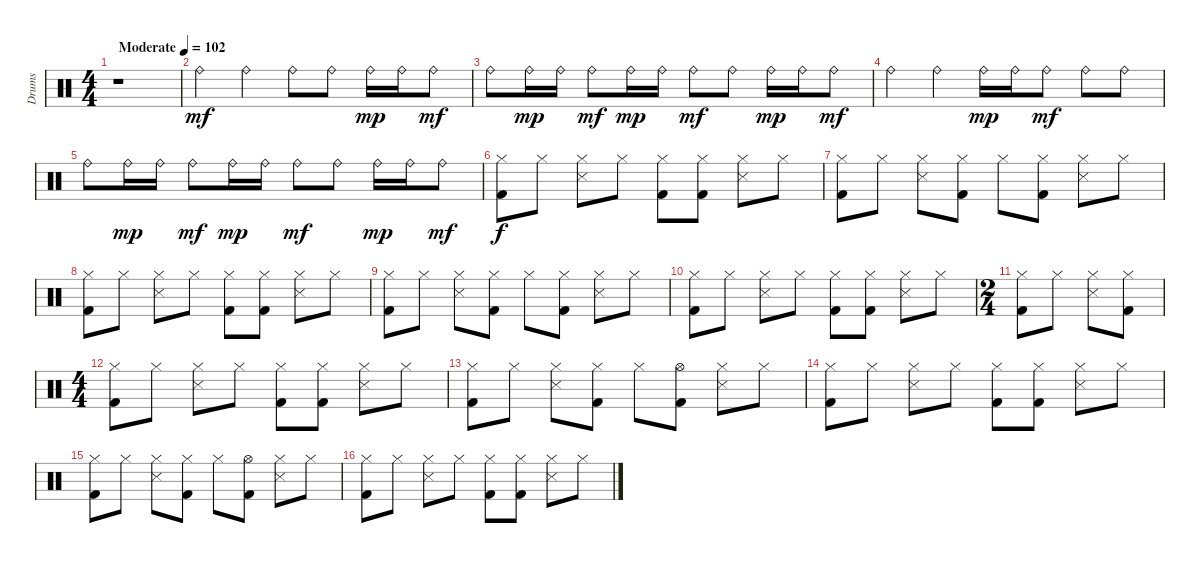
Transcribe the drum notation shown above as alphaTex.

\track ("Drums" "Drums") {instrument percussion}
\staff {score}
\articulation defaults
\ts (4 4)
\tempo (102 "Moderate")
\clef neutral
\ks c
r.1{dy mf} |
"Ride (bell)".4 "Ride (bell)".4 "Ride (bell)".8 "Ride (bell)".8 "Ride (bell)".16{dy mp} "Ride (bell)".16 "Ride (bell)".8{dy mf} |
"Ride (bell)".8 "Ride (bell)".16{dy mp} "Ride (bell)".16 "Ride (bell)".8{dy mf} "Ride (bell)".16{dy mp} "Ride (bell)".16 "Ride (bell)".8{dy mf} "Ride (bell)".8 "Ride (bell)".16{dy mp} "Ride (bell)".16 "Ride (bell)".8{dy mf} |
"Ride (bell)".4 "Ride (bell)".4 "Ride (bell)".16{dy mp} "Ride (bell)".16 "Ride (bell)".8{dy mf} "Ride (bell)".8 "Ride (bell)".8 |
"Ride (bell)".8 "Ride (bell)".16{dy mp} "Ride (bell)".16 "Ride (bell)".8{dy mf} "Ride (bell)".16{dy mp} "Ride (bell)".16 "Ride (bell)".8{dy mf} "Ride (bell)".8 "Ride (bell)".16{dy mp} "Ride (bell)".16 "Ride (bell)".8{dy mf} |
("Kick (hit) 2" "Hi-Hat (closed)").8{dy f} "Hi-Hat (closed)".8 ("Snare (side stick) 3" "Hi-Hat (closed)").8 "Hi-Hat (closed)".8 ("Kick (hit) 2" "Hi-Hat (closed)").8 ("Kick (hit) 2" "Hi-Hat (closed)").8 ("Snare (side stick) 3" "Hi-Hat (closed)").8 "Hi-Hat (closed)".8 |
("Kick (hit) 2" "Hi-Hat (closed)").8 "Hi-Hat (closed)".8 ("Snare (side stick) 3" "Hi-Hat (closed)").8 ("Kick (hit) 2" "Hi-Hat (closed)").8 "Hi-Hat (closed)".8 ("Kick (hit) 2" "Hi-Hat (closed)").8 ("Snare (side stick) 3" "Hi-Hat (closed)").8 "Hi-Hat (closed)".8 |
("Kick (hit) 2" "Hi-Hat (closed)").8 "Hi-Hat (closed)".8 ("Snare (side stick) 3" "Hi-Hat (closed)").8 "Hi-Hat (closed)".8 ("Kick (hit) 2" "Hi-Hat (closed)").8 ("Kick (hit) 2" "Hi-Hat (closed)").8 ("Snare (side stick) 3" "Hi-Hat (closed)").8 "Hi-Hat (closed)".8 |
("Kick (hit) 2" "Hi-Hat (closed)").8 "Hi-Hat (closed)".8 ("Snare (side stick) 3" "Hi-Hat (closed)").8 ("Kick (hit) 2" "Hi-Hat (closed)").8 "Hi-Hat (closed)".8 ("Kick (hit) 2" "Hi-Hat (closed)").8 ("Snare (side stick) 3" "Hi-Hat (closed)").8 "Hi-Hat (closed)".8 |
("Kick (hit) 2" "Hi-Hat (closed)").8 "Hi-Hat (closed)".8 ("Snare (side stick) 3" "Hi-Hat (closed)").8 "Hi-Hat (closed)".8 ("Kick (hit) 2" "Hi-Hat (closed)").8 ("Kick (hit) 2" "Hi-Hat (closed)").8 ("Snare (side stick) 3" "Hi-Hat (closed)").8 "Hi-Hat (closed)".8 |
\ts (2 4)
("Kick (hit) 2" "Hi-Hat (closed)").8 "Hi-Hat (closed)".8 ("Snare (side stick) 3" "Hi-Hat (closed)").8 ("Kick (hit) 2" "Hi-Hat (closed)").8 |
\ts (4 4)
("Kick (hit) 2" "Hi-Hat (closed)").8 "Hi-Hat (closed)".8 ("Snare (side stick) 3" "Hi-Hat (closed)").8 "Hi-Hat (closed)".8 ("Kick (hit) 2" "Hi-Hat (closed)").8 ("Kick (hit) 2" "Hi-Hat (closed)").8 ("Snare (side stick) 3" "Hi-Hat (closed)").8 "Hi-Hat (closed)".8 |
("Kick (hit) 2" "Hi-Hat (closed)").8 "Hi-Hat (closed)".8 ("Snare (side stick) 3" "Hi-Hat (closed)").8 ("Kick (hit) 2" "Hi-Hat (closed)").8 "Hi-Hat (closed)".8 ("Kick (hit) 2" "Hi-Hat (open)").8 ("Snare (side stick) 3" "Hi-Hat (closed)").8 "Hi-Hat (closed)".8 |
("Kick (hit) 2" "Hi-Hat (closed)").8 "Hi-Hat (closed)".8 ("Snare (side stick) 3" "Hi-Hat (closed)").8 "Hi-Hat (closed)".8 ("Kick (hit) 2" "Hi-Hat (closed)").8 ("Kick (hit) 2" "Hi-Hat (closed)").8 ("Snare (side stick) 3" "Hi-Hat (closed)").8 "Hi-Hat (closed)".8 |
("Kick (hit) 2" "Hi-Hat (closed)").8 "Hi-Hat (closed)".8 ("Snare (side stick) 3" "Hi-Hat (closed)").8 ("Kick (hit) 2" "Hi-Hat (closed)").8 "Hi-Hat (closed)".8 ("Kick (hit) 2" "Hi-Hat (open)").8 ("Snare (side stick) 3" "Hi-Hat (closed)").8 "Hi-Hat (closed)".8 |
("Kick (hit) 2" "Hi-Hat (closed)").8 "Hi-Hat (closed)".8 ("Snare (side stick) 3" "Hi-Hat (closed)").8 "Hi-Hat (closed)".8 ("Kick (hit) 2" "Hi-Hat (closed)").8 ("Kick (hit) 2" "Hi-Hat (closed)").8 ("Snare (side stick) 3" "Hi-Hat (closed)").8 "Hi-Hat (closed)".8
